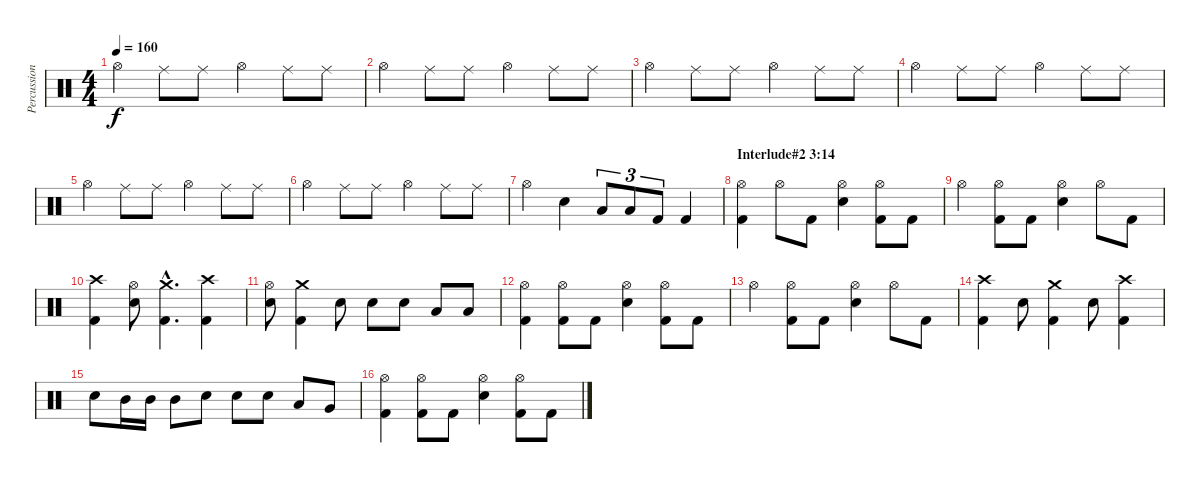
\track ("Percussion" "Percussion") {instrument percussion}
\staff {score}
\articulation defaults
\ts (4 4)
\tempo 160
\clef neutral
\ks c "Hi-Hat (open)".4{dy f} "Ride (middle)".8 "Ride (middle)".8 "Hi-Hat (open)".4 "Ride (middle)".8 "Ride (middle)".8
|
"Hi-Hat (open)".4 "Ride (middle)".8 "Ride (middle)".8 "Hi-Hat (open)".4 "Ride (middle)".8 "Ride (middle)".8 |
"Hi-Hat (open)".4 "Ride (middle)".8 "Ride (middle)".8 "Hi-Hat (open)".4 "Ride (middle)".8 "Ride (middle)".8 |
"Hi-Hat (open)".4 "Ride (middle)".8 "Ride (middle)".8 "Hi-Hat (open)".4 "Ride (middle)".8 "Ride (middle)".8 |
"Hi-Hat (open)".4 "Ride (middle)".8 "Ride (middle)".8 "Hi-Hat (open)".4 "Ride (middle)".8 "Ride (middle)".8 |
"Hi-Hat (open)".4 "Ride (middle)".8 "Ride (middle)".8 "Hi-Hat (open)".4 "Ride (middle)".8 "Ride (middle)".8 |
"Hi-Hat (open)".4 "Snare (hit) 2".4{volume 16} "Low Tom (hit)".8{tu (3 2)} "Low Tom (hit)".8{tu (3 2)} "Kick (hit) 2".8{tu (3 2)} "Kick (hit) 2".4 |
\section ("" "Interlude#2 3:14")
("Hi-Hat (open)" "Kick (hit) 2").4 "Hi-Hat (open)".8 "Kick (hit) 2".8 ("Hi-Hat (open)" "Snare (hit) 2").4 ("Hi-Hat (open)" "Kick (hit) 2").8 "Kick (hit) 2".8 |
"Hi-Hat (open)".4 ("Hi-Hat (open)" "Kick (hit) 2").8 "Kick (hit) 2".8 ("Hi-Hat (open)" "Snare (hit) 2").4 "Hi-Hat (open)".8 "Kick (hit) 2".8 |
("Crash high (hit)" "Kick (hit) 2").4 ("Hi-Hat (open)" "Snare (hit) 2").8 ("Crash medium (hit)"{hac} "Kick (hit) 2"{hac}).4{d} ("Crash high (hit)" "Kick (hit) 2").4 |
("Hi-Hat (open)" "Snare (hit) 2").8 ("Crash medium (hit)" "Kick (hit) 2").4 "Snare (hit) 2".8 "Snare (hit) 2".8 "Snare (hit) 2".8 "Low Tom (hit)".8 "Low Tom (hit)".8 |
("Hi-Hat (open)" "Kick (hit) 2").4 ("Hi-Hat (open)" "Kick (hit) 2").8 "Kick (hit) 2".8 ("Hi-Hat (open)" "Snare (hit) 2").4 ("Hi-Hat (open)" "Kick (hit) 2").8 "Kick (hit) 2".8 |
"Hi-Hat (open)".4 ("Hi-Hat (open)" "Kick (hit) 2").8 "Kick (hit) 2".8 ("Hi-Hat (open)" "Snare (hit) 2").4 "Hi-Hat (open)".8 "Kick (hit) 2".8 |
("Crash high (hit)" "Kick (hit) 2").4 "Snare (hit) 2".8 ("Crash medium (hit)" "Kick (hit) 2").4 "Snare (hit) 2".8 ("Crash high (hit)" "Kick (hit) 2").4 |
"Snare (hit) 2".8 "Mid Tom (hit)".16 "Mid Tom (hit)".16 "Mid Tom (hit)".8 "Snare (hit) 2".8 "Snare (hit) 2".8 "Snare (hit) 2".8 "Low Tom (hit)".8 "Very Low Tom (hit)".8 |
("Hi-Hat (open)" "Kick (hit) 2").4 ("Hi-Hat (open)" "Kick (hit) 2").8 "Kick (hit) 2".8 ("Hi-Hat (open)" "Snare (hit) 2").4 ("Hi-Hat (open)" "Kick (hit) 2").8 "Kick (hit) 2".8
